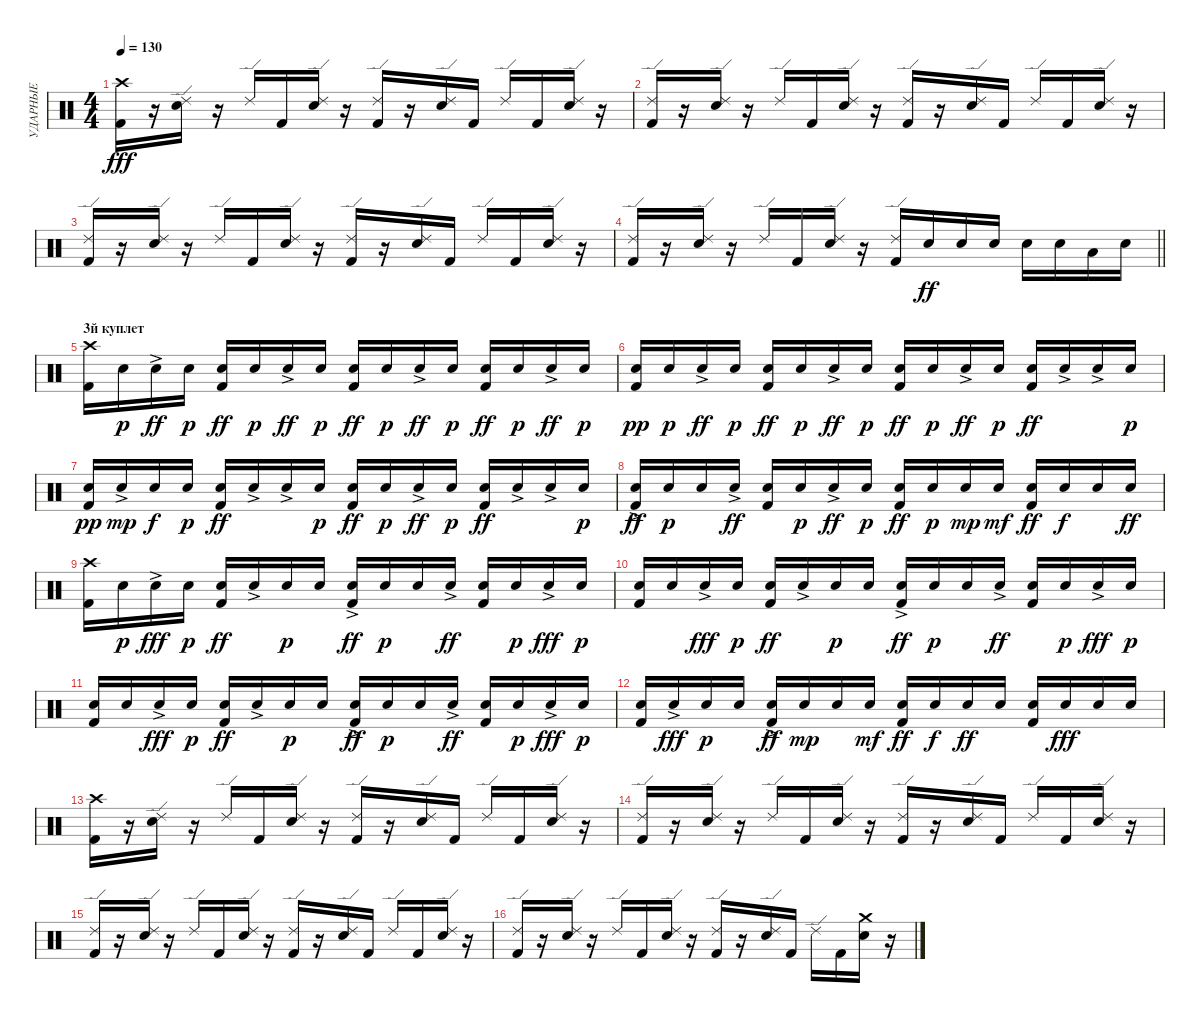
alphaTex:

\track ("УДАРНЫЕ" "УДАРНЫЕ") {instrument percussion}
\staff {score}
\articulation defaults
\ts (4 4)
\tempo 130
\clef neutral
\ks c
("Crash high (hit)" "Kick (hit) 2").16{dy fff} r.16 ("Snare (hit) 2" "Ride (edge) 2").16 r.16 "Ride (edge) 2".16 "Kick (hit) 2".16 ("Snare (hit) 2" "Ride (edge) 2").16 r.16 ("Kick (hit) 2" "Ride (edge) 2").16 r.16 ("Snare (hit) 2" "Ride (edge) 2").16 "Kick (hit) 2".16 "Ride (edge) 2".16 "Kick (hit) 2".16 ("Snare (hit) 2" "Ride (edge) 2").16 r.16 |
("Ride (edge) 2" "Kick (hit) 2").16 r.16 ("Snare (hit) 2" "Ride (edge) 2").16 r.16 "Ride (edge) 2".16 "Kick (hit) 2".16 ("Snare (hit) 2" "Ride (edge) 2").16 r.16 ("Kick (hit) 2" "Ride (edge) 2").16 r.16 ("Snare (hit) 2" "Ride (edge) 2").16 "Kick (hit) 2".16 "Ride (edge) 2".16 "Kick (hit) 2".16 ("Snare (hit) 2" "Ride (edge) 2").16 r.16 |
("Ride (edge) 2" "Kick (hit) 2").16 r.16 ("Snare (hit) 2" "Ride (edge) 2").16 r.16 "Ride (edge) 2".16 "Kick (hit) 2".16 ("Snare (hit) 2" "Ride (edge) 2").16 r.16 ("Kick (hit) 2" "Ride (edge) 2").16 r.16 ("Snare (hit) 2" "Ride (edge) 2").16 "Kick (hit) 2".16 "Ride (edge) 2".16 "Kick (hit) 2".16 ("Snare (hit) 2" "Ride (edge) 2").16 r.16 |
\barLineRight lightlight
("Ride (edge) 2" "Kick (hit) 2").16 r.16 ("Snare (hit) 2" "Ride (edge) 2").16 r.16 "Ride (edge) 2".16 "Kick (hit) 2".16 ("Snare (hit) 2" "Ride (edge) 2").16 r.16 ("Kick (hit) 2" "Ride (edge) 2").16 "Snare (hit) 2".16{dy ff} "Snare (hit) 2".16 "Snare (hit) 2".16 "Snare (hit) 2".16 "Snare (hit) 2".16 "Low Tom (hit)".16 "Snare (hit) 2".16 |
\section ("" "3й куплет")
("Kick (hit) 2" "Crash high (hit)").16 "Snare (hit) 2".16{dy p} "Snare (hit) 2"{ac}.16{dy ff} "Snare (hit) 2".16{dy p} ("Snare (hit) 2" "Kick (hit) 2").16{dy ff} "Snare (hit) 2".16{dy p} "Snare (hit) 2"{ac}.16{dy ff} "Snare (hit) 2".16{dy p} ("Snare (hit) 2" "Kick (hit) 2").16{dy ff} "Snare (hit) 2".16{dy p} "Snare (hit) 2"{ac}.16{dy ff} "Snare (hit) 2".16{dy p} ("Snare (hit) 2" "Kick (hit) 2").16{dy ff} "Snare (hit) 2".16{dy p} "Snare (hit) 2"{ac}.16{dy ff} "Snare (hit) 2".16{dy p} |
("Kick (hit) 2" "Snare (hit) 2").16{dy pp} "Snare (hit) 2".16{dy p} "Snare (hit) 2"{ac}.16{dy ff} "Snare (hit) 2".16{dy p} ("Snare (hit) 2" "Kick (hit) 2").16{dy ff} "Snare (hit) 2".16{dy p} "Snare (hit) 2"{ac}.16{dy ff} "Snare (hit) 2".16{dy p} ("Snare (hit) 2" "Kick (hit) 2").16{dy ff} "Snare (hit) 2".16{dy p} "Snare (hit) 2"{ac}.16{dy ff} "Snare (hit) 2".16{dy p} ("Snare (hit) 2" "Kick (hit) 2").16{dy ff} "Snare (hit) 2"{ac}.16 "Snare (hit) 2"{ac}.16 "Snare (hit) 2".16{dy p} |
("Kick (hit) 2" "Snare (hit) 2").16{dy pp} "Snare (hit) 2"{ac}.16{dy mp} "Snare (hit) 2".16{dy f} "Snare (hit) 2".16{dy p} ("Snare (hit) 2" "Kick (hit) 2").16{dy ff} "Snare (hit) 2"{ac}.16 "Snare (hit) 2"{ac}.16 "Snare (hit) 2".16{dy p} ("Snare (hit) 2" "Kick (hit) 2").16{dy ff} "Snare (hit) 2".16{dy p} "Snare (hit) 2"{ac}.16{dy ff} "Snare (hit) 2".16{dy p} ("Snare (hit) 2" "Kick (hit) 2").16{dy ff} "Snare (hit) 2"{ac}.16 "Snare (hit) 2"{ac}.16 "Snare (hit) 2".16{dy p} |
("Kick (hit) 2" "Snare (hit) 2"{ac}).16{dy ff} "Snare (hit) 2".16{dy p} "Snare (hit) 2".16 "Snare (hit) 2"{ac}.16{dy ff} ("Snare (hit) 2" "Kick (hit) 2").16 "Snare (hit) 2".16{dy p} "Snare (hit) 2"{ac}.16{dy ff} "Snare (hit) 2".16{dy p} ("Snare (hit) 2" "Kick (hit) 2").16{dy ff} "Snare (hit) 2".16{dy p} "Snare (hit) 2".16{dy mp} "Snare (hit) 2".16{dy mf} ("Snare (hit) 2" "Kick (hit) 2").16{dy ff} "Snare (hit) 2".16{dy f} "Snare (hit) 2".16 "Snare (hit) 2".16{dy ff} |
("Kick (hit) 2" "Crash high (hit)").16 "Snare (hit) 2".16{dy p} "Snare (hit) 2"{ac}.16{dy fff} "Snare (hit) 2".16{dy p} ("Snare (hit) 2" "Kick (hit) 2").16{dy ff} "Snare (hit) 2"{ac}.16 "Snare (hit) 2".16{dy p} "Snare (hit) 2".16 ("Snare (hit) 2"{ac} "Kick (hit) 2").16{dy ff} "Snare (hit) 2".16{dy p} "Snare (hit) 2".16 "Snare (hit) 2"{ac}.16{dy ff} ("Snare (hit) 2" "Kick (hit) 2").16 "Snare (hit) 2".16{dy p} "Snare (hit) 2"{ac}.16{dy fff} "Snare (hit) 2".16{dy p} |
("Kick (hit) 2" "Snare (hit) 2").16 "Snare (hit) 2".16 "Snare (hit) 2"{ac}.16{dy fff} "Snare (hit) 2".16{dy p} ("Snare (hit) 2" "Kick (hit) 2").16{dy ff} "Snare (hit) 2"{ac}.16 "Snare (hit) 2".16{dy p} "Snare (hit) 2".16 ("Snare (hit) 2"{ac} "Kick (hit) 2").16{dy ff} "Snare (hit) 2".16{dy p} "Snare (hit) 2".16 "Snare (hit) 2"{ac}.16{dy ff} ("Snare (hit) 2" "Kick (hit) 2").16 "Snare (hit) 2".16{dy p} "Snare (hit) 2"{ac}.16{dy fff} "Snare (hit) 2".16{dy p} |
("Kick (hit) 2" "Snare (hit) 2").16 "Snare (hit) 2".16 "Snare (hit) 2"{ac}.16{dy fff} "Snare (hit) 2".16{dy p} ("Snare (hit) 2" "Kick (hit) 2").16{dy ff} "Snare (hit) 2"{ac}.16 "Snare (hit) 2".16{dy p} "Snare (hit) 2".16 ("Snare (hit) 2"{ac} "Kick (hit) 2").16{dy ff} "Snare (hit) 2".16{dy p} "Snare (hit) 2".16 "Snare (hit) 2"{ac}.16{dy ff} ("Snare (hit) 2" "Kick (hit) 2").16 "Snare (hit) 2".16{dy p} "Snare (hit) 2"{ac}.16{dy fff} "Snare (hit) 2".16{dy p} |
("Kick (hit) 2" "Snare (hit) 2").16 "Snare (hit) 2"{ac}.16{dy fff} "Snare (hit) 2".16{dy p} "Snare (hit) 2".16 ("Snare (hit) 2"{ac} "Kick (hit) 2").16{dy ff} "Snare (hit) 2".16{dy mp} "Snare (hit) 2".16 "Snare (hit) 2".16{dy mf} ("Snare (hit) 2" "Kick (hit) 2").16{dy ff} "Snare (hit) 2".16{dy f} "Snare (hit) 2".16{dy ff} "Snare (hit) 2".16 ("Snare (hit) 2" "Kick (hit) 2").16 "Snare (hit) 2".16{dy fff} "Snare (hit) 2".16 "Snare (hit) 2".16 |
("Crash high (hit)" "Kick (hit) 2").16 r.16 ("Snare (hit) 2" "Ride (edge) 2").16 r.16 "Ride (edge) 2".16 "Kick (hit) 2".16 ("Snare (hit) 2" "Ride (edge) 2").16 r.16 ("Kick (hit) 2" "Ride (edge) 2").16 r.16 ("Snare (hit) 2" "Ride (edge) 2").16 "Kick (hit) 2".16 "Ride (edge) 2".16 "Kick (hit) 2".16 ("Snare (hit) 2" "Ride (edge) 2").16 r.16 |
("Ride (edge) 2" "Kick (hit) 2").16 r.16 ("Snare (hit) 2" "Ride (edge) 2").16 r.16 "Ride (edge) 2".16 "Kick (hit) 2".16 ("Snare (hit) 2" "Ride (edge) 2").16 r.16 ("Kick (hit) 2" "Ride (edge) 2").16 r.16 ("Snare (hit) 2" "Ride (edge) 2").16 "Kick (hit) 2".16 "Ride (edge) 2".16 "Kick (hit) 2".16 ("Snare (hit) 2" "Ride (edge) 2").16 r.16 |
("Ride (edge) 2" "Kick (hit) 2").16 r.16 ("Snare (hit) 2" "Ride (edge) 2").16 r.16 "Ride (edge) 2".16 "Kick (hit) 2".16 ("Snare (hit) 2" "Ride (edge) 2").16 r.16 ("Kick (hit) 2" "Ride (edge) 2").16 r.16 ("Snare (hit) 2" "Ride (edge) 2").16 "Kick (hit) 2".16 "Ride (edge) 2".16 "Kick (hit) 2".16 ("Snare (hit) 2" "Ride (edge) 2").16 r.16 |
("Ride (edge) 2" "Kick (hit) 2").16 r.16 ("Snare (hit) 2" "Ride (edge) 2").16 r.16 "Ride (edge) 2".16 "Kick (hit) 2".16 ("Snare (hit) 2" "Ride (edge) 2").16 r.16 ("Kick (hit) 2" "Ride (edge) 2").16 r.16 ("Snare (hit) 2" "Ride (edge) 2").16 "Kick (hit) 2".16 "Ride (edge) 2".16 "Kick (hit) 2".16 ("Snare (hit) 2" "Crash medium (hit)").16 r.16
